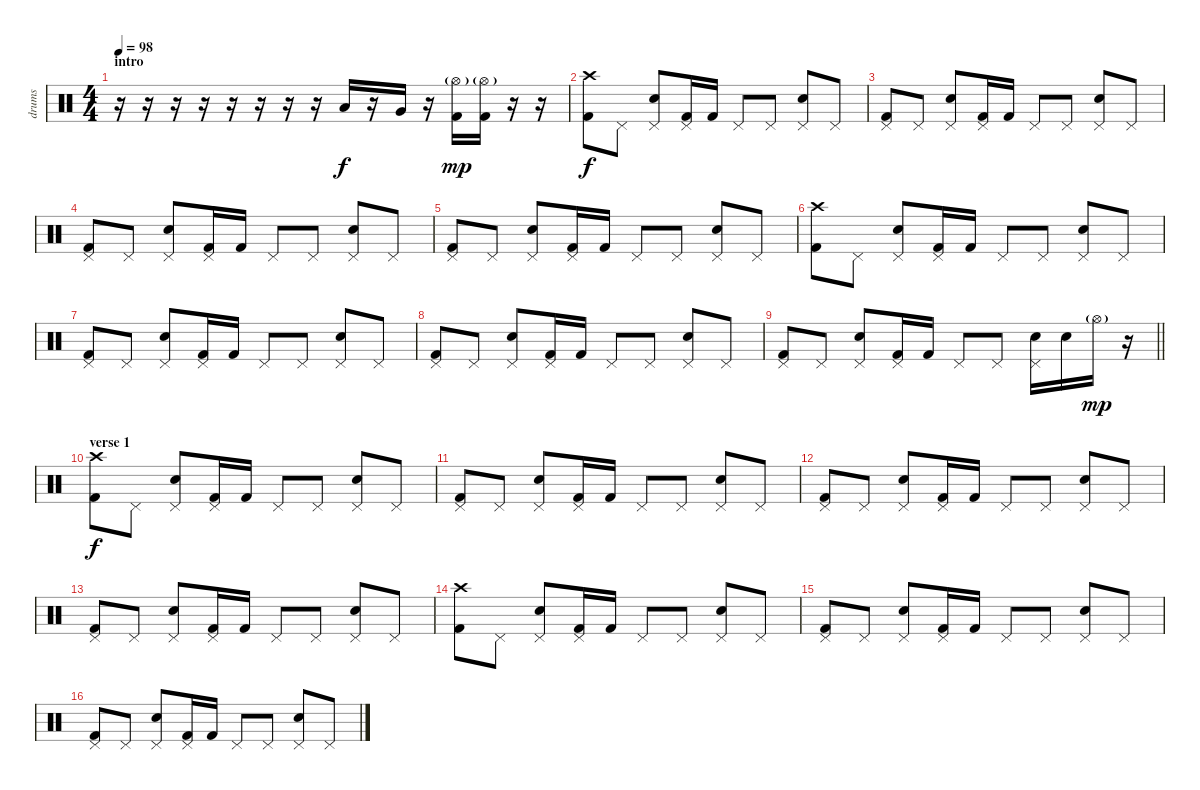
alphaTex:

\track ("drums" "drums") {instrument percussion}
\staff {score}
\articulation defaults
\ts (4 4)
\section ("" "intro")
\tempo 98
\clef neutral
\ks c
r.16{dy f} r.16 r.16 r.16 r.16 r.16 r.16 r.16 "Low Tom (hit)".16 r.16 "Very Low Tom (hit)".16 r.16 ("Kick (hit) 2" "Hi-Hat (open)"{g}).16{dy mp} ("Kick (hit) 2" "Hi-Hat (open)"{g}).16 r.16 r.16 |
("Kick (hit) 2" "Crash high (hit)").8{dy f} "Pedal Hi-Hat (hit)".8 ("Electric Snare (hit)" "Pedal Hi-Hat (hit)").8 ("Kick (hit) 2" "Pedal Hi-Hat (hit)").16 "Kick (hit) 2".16 "Pedal Hi-Hat (hit)".8 "Pedal Hi-Hat (hit)".8 ("Electric Snare (hit)" "Pedal Hi-Hat (hit)").8 "Pedal Hi-Hat (hit)".8 |
("Kick (hit) 2" "Pedal Hi-Hat (hit)").8 "Pedal Hi-Hat (hit)".8 ("Electric Snare (hit)" "Pedal Hi-Hat (hit)").8 ("Kick (hit) 2" "Pedal Hi-Hat (hit)").16 "Kick (hit) 2".16 "Pedal Hi-Hat (hit)".8 "Pedal Hi-Hat (hit)".8 ("Electric Snare (hit)" "Pedal Hi-Hat (hit)").8 "Pedal Hi-Hat (hit)".8 |
("Kick (hit) 2" "Pedal Hi-Hat (hit)").8 "Pedal Hi-Hat (hit)".8 ("Electric Snare (hit)" "Pedal Hi-Hat (hit)").8 ("Kick (hit) 2" "Pedal Hi-Hat (hit)").16 "Kick (hit) 2".16 "Pedal Hi-Hat (hit)".8 "Pedal Hi-Hat (hit)".8 ("Electric Snare (hit)" "Pedal Hi-Hat (hit)").8 "Pedal Hi-Hat (hit)".8 |
("Kick (hit) 2" "Pedal Hi-Hat (hit)").8 "Pedal Hi-Hat (hit)".8 ("Electric Snare (hit)" "Pedal Hi-Hat (hit)").8 ("Kick (hit) 2" "Pedal Hi-Hat (hit)").16 "Kick (hit) 2".16 "Pedal Hi-Hat (hit)".8 "Pedal Hi-Hat (hit)".8 ("Electric Snare (hit)" "Pedal Hi-Hat (hit)").8 "Pedal Hi-Hat (hit)".8 |
("Kick (hit) 2" "Crash high (hit)").8 "Pedal Hi-Hat (hit)".8 ("Electric Snare (hit)" "Pedal Hi-Hat (hit)").8 ("Kick (hit) 2" "Pedal Hi-Hat (hit)").16 "Kick (hit) 2".16 "Pedal Hi-Hat (hit)".8 "Pedal Hi-Hat (hit)".8 ("Electric Snare (hit)" "Pedal Hi-Hat (hit)").8 "Pedal Hi-Hat (hit)".8 |
("Kick (hit) 2" "Pedal Hi-Hat (hit)").8 "Pedal Hi-Hat (hit)".8 ("Electric Snare (hit)" "Pedal Hi-Hat (hit)").8 ("Kick (hit) 2" "Pedal Hi-Hat (hit)").16 "Kick (hit) 2".16 "Pedal Hi-Hat (hit)".8 "Pedal Hi-Hat (hit)".8 ("Electric Snare (hit)" "Pedal Hi-Hat (hit)").8 "Pedal Hi-Hat (hit)".8 |
("Kick (hit) 2" "Pedal Hi-Hat (hit)").8 "Pedal Hi-Hat (hit)".8 ("Electric Snare (hit)" "Pedal Hi-Hat (hit)").8 ("Kick (hit) 2" "Pedal Hi-Hat (hit)").16 "Kick (hit) 2".16 "Pedal Hi-Hat (hit)".8 "Pedal Hi-Hat (hit)".8 ("Electric Snare (hit)" "Pedal Hi-Hat (hit)").8 "Pedal Hi-Hat (hit)".8 |
\barLineRight lightlight
("Kick (hit) 2" "Pedal Hi-Hat (hit)").8 "Pedal Hi-Hat (hit)".8 ("Electric Snare (hit)" "Pedal Hi-Hat (hit)").8 ("Kick (hit) 2" "Pedal Hi-Hat (hit)").16 "Kick (hit) 2".16 "Pedal Hi-Hat (hit)".8 "Pedal Hi-Hat (hit)".8 ("Electric Snare (hit)" "Pedal Hi-Hat (hit)").16 "Electric Snare (hit)".16 "Hi-Hat (open)"{g}.16{dy mp} r.16 |
\section ("" "verse 1")
("Kick (hit) 2" "Crash high (hit)").8{dy f} "Pedal Hi-Hat (hit)".8 ("Electric Snare (hit)" "Pedal Hi-Hat (hit)").8 ("Kick (hit) 2" "Pedal Hi-Hat (hit)").16 "Kick (hit) 2".16 "Pedal Hi-Hat (hit)".8 "Pedal Hi-Hat (hit)".8 ("Electric Snare (hit)" "Pedal Hi-Hat (hit)").8 "Pedal Hi-Hat (hit)".8 |
("Kick (hit) 2" "Pedal Hi-Hat (hit)").8 "Pedal Hi-Hat (hit)".8 ("Electric Snare (hit)" "Pedal Hi-Hat (hit)").8 ("Kick (hit) 2" "Pedal Hi-Hat (hit)").16 "Kick (hit) 2".16 "Pedal Hi-Hat (hit)".8 "Pedal Hi-Hat (hit)".8 ("Electric Snare (hit)" "Pedal Hi-Hat (hit)").8 "Pedal Hi-Hat (hit)".8 |
("Kick (hit) 2" "Pedal Hi-Hat (hit)").8 "Pedal Hi-Hat (hit)".8 ("Electric Snare (hit)" "Pedal Hi-Hat (hit)").8 ("Kick (hit) 2" "Pedal Hi-Hat (hit)").16 "Kick (hit) 2".16 "Pedal Hi-Hat (hit)".8 "Pedal Hi-Hat (hit)".8 ("Electric Snare (hit)" "Pedal Hi-Hat (hit)").8 "Pedal Hi-Hat (hit)".8 |
("Kick (hit) 2" "Pedal Hi-Hat (hit)").8 "Pedal Hi-Hat (hit)".8 ("Electric Snare (hit)" "Pedal Hi-Hat (hit)").8 ("Kick (hit) 2" "Pedal Hi-Hat (hit)").16 "Kick (hit) 2".16 "Pedal Hi-Hat (hit)".8 "Pedal Hi-Hat (hit)".8 ("Electric Snare (hit)" "Pedal Hi-Hat (hit)").8 "Pedal Hi-Hat (hit)".8 |
("Kick (hit) 2" "Crash high (hit)").8 "Pedal Hi-Hat (hit)".8 ("Electric Snare (hit)" "Pedal Hi-Hat (hit)").8 ("Kick (hit) 2" "Pedal Hi-Hat (hit)").16 "Kick (hit) 2".16 "Pedal Hi-Hat (hit)".8 "Pedal Hi-Hat (hit)".8 ("Electric Snare (hit)" "Pedal Hi-Hat (hit)").8 "Pedal Hi-Hat (hit)".8 |
("Kick (hit) 2" "Pedal Hi-Hat (hit)").8 "Pedal Hi-Hat (hit)".8 ("Electric Snare (hit)" "Pedal Hi-Hat (hit)").8 ("Kick (hit) 2" "Pedal Hi-Hat (hit)").16 "Kick (hit) 2".16 "Pedal Hi-Hat (hit)".8 "Pedal Hi-Hat (hit)".8 ("Electric Snare (hit)" "Pedal Hi-Hat (hit)").8 "Pedal Hi-Hat (hit)".8 |
("Kick (hit) 2" "Pedal Hi-Hat (hit)").8 "Pedal Hi-Hat (hit)".8 ("Electric Snare (hit)" "Pedal Hi-Hat (hit)").8 ("Kick (hit) 2" "Pedal Hi-Hat (hit)").16 "Kick (hit) 2".16 "Pedal Hi-Hat (hit)".8 "Pedal Hi-Hat (hit)".8 ("Electric Snare (hit)" "Pedal Hi-Hat (hit)").8 "Pedal Hi-Hat (hit)".8
